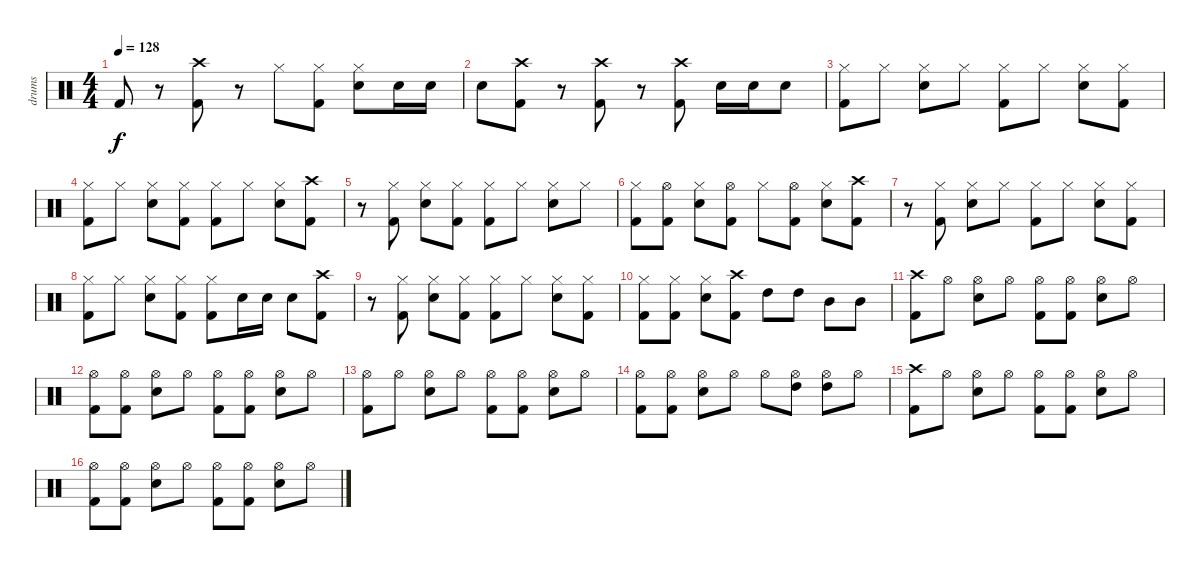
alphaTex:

\track ("drums" "drums") {instrument percussion}
\staff {score}
\articulation defaults
\ts (4 4)
\tempo 128
\clef neutral
\ks c "Kick (hit) 2".8{dy f}
r.8 ("Crash high (hit)" "Kick (hit) 2").8 r.8 "Hi-Hat (closed)".8 ("Kick (hit) 2" "Hi-Hat (closed)").8 ("Snare (hit) 2" "Hi-Hat (closed)").8 "Snare (hit) 2".16 "Snare (hit) 2".16 |
"Snare (hit) 2".8 ("Crash high (hit)" "Kick (hit) 2").8 r.8 ("Crash high (hit)" "Kick (hit) 2").8 r.8 ("Crash high (hit)" "Kick (hit) 2").8 "Snare (hit) 2".16 "Snare (hit) 2".16 "Snare (hit) 2".8 |
("Kick (hit) 2" "Hi-Hat (closed)").8 "Hi-Hat (closed)".8 ("Snare (hit) 2" "Hi-Hat (closed)").8 "Hi-Hat (closed)".8 ("Kick (hit) 2" "Hi-Hat (closed)").8 "Hi-Hat (closed)".8 ("Snare (hit) 2" "Hi-Hat (closed)").8 ("Kick (hit) 2" "Hi-Hat (closed)").8 |
("Kick (hit) 2" "Hi-Hat (closed)").8 "Hi-Hat (closed)".8 ("Snare (hit) 2" "Hi-Hat (closed)").8 ("Kick (hit) 2" "Hi-Hat (closed)").8 ("Kick (hit) 2" "Hi-Hat (closed)").8 "Hi-Hat (closed)".8 ("Snare (hit) 2" "Hi-Hat (closed)").8 ("Kick (hit) 2" "Crash high (hit)").8 |
r.8 ("Kick (hit) 2" "Hi-Hat (closed)").8 ("Snare (hit) 2" "Hi-Hat (closed)").8 ("Kick (hit) 2" "Hi-Hat (closed)").8 ("Kick (hit) 2" "Hi-Hat (closed)").8 "Hi-Hat (closed)".8 ("Snare (hit) 2" "Hi-Hat (closed)").8 "Hi-Hat (closed)".8 |
("Kick (hit) 2" "Hi-Hat (closed)").8 ("Kick (hit) 2" "Hi-Hat (open)").8 ("Snare (hit) 2" "Hi-Hat (closed)").8 ("Kick (hit) 2" "Hi-Hat (open)").8 "Hi-Hat (closed)".8 ("Kick (hit) 2" "Hi-Hat (open)").8 ("Snare (hit) 2" "Hi-Hat (closed)").8 ("Kick (hit) 2" "Crash high (hit)").8 |
r.8 ("Kick (hit) 2" "Hi-Hat (closed)").8 ("Snare (hit) 2" "Hi-Hat (closed)").8 "Hi-Hat (closed)".8 ("Kick (hit) 2" "Hi-Hat (closed)").8 "Hi-Hat (closed)".8 ("Snare (hit) 2" "Hi-Hat (closed)").8 ("Kick (hit) 2" "Hi-Hat (closed)").8 |
("Kick (hit) 2" "Hi-Hat (closed)").8 "Hi-Hat (closed)".8 ("Snare (hit) 2" "Hi-Hat (closed)").8 ("Kick (hit) 2" "Hi-Hat (closed)").8 ("Kick (hit) 2" "Hi-Hat (closed)").8 "Snare (hit) 2".16 "Snare (hit) 2".16 "Snare (hit) 2".8 ("Kick (hit) 2" "Crash high (hit)").8 |
r.8 ("Kick (hit) 2" "Hi-Hat (closed)").8 ("Snare (hit) 2" "Hi-Hat (closed)").8 ("Kick (hit) 2" "Hi-Hat (closed)").8 ("Kick (hit) 2" "Hi-Hat (closed)").8 "Hi-Hat (closed)".8 ("Snare (hit) 2" "Hi-Hat (closed)").8 ("Kick (hit) 2" "Hi-Hat (closed)").8 |
("Kick (hit) 2" "Hi-Hat (closed)").8 ("Kick (hit) 2" "Hi-Hat (closed)").8 ("Snare (hit) 2" "Hi-Hat (closed)").8 ("Kick (hit) 2" "Crash high (hit)").8 "High Tom (hit)".8 "High Tom (hit)".8 "Mid Tom (hit)".8 "Mid Tom (hit)".8 |
("Kick (hit) 2" "Crash high (hit)").8 "Hi-Hat (open)".8 ("Snare (hit) 2" "Hi-Hat (open)").8 "Hi-Hat (open)".8 ("Kick (hit) 2" "Hi-Hat (open)").8 ("Kick (hit) 2" "Hi-Hat (open)").8 ("Snare (hit) 2" "Hi-Hat (open)").8 "Hi-Hat (open)".8 |
("Kick (hit) 2" "Hi-Hat (open)").8 ("Kick (hit) 2" "Hi-Hat (open)").8 ("Snare (hit) 2" "Hi-Hat (open)").8 "Hi-Hat (open)".8 ("Kick (hit) 2" "Hi-Hat (open)").8 ("Kick (hit) 2" "Hi-Hat (open)").8 ("Snare (hit) 2" "Hi-Hat (open)").8 "Hi-Hat (open)".8 |
("Kick (hit) 2" "Hi-Hat (open)").8 "Hi-Hat (open)".8 ("Snare (hit) 2" "Hi-Hat (open)").8 "Hi-Hat (open)".8 ("Kick (hit) 2" "Hi-Hat (open)").8 ("Kick (hit) 2" "Hi-Hat (open)").8 ("Snare (hit) 2" "Hi-Hat (open)").8 "Hi-Hat (open)".8 |
("Kick (hit) 2" "Hi-Hat (open)").8 ("Kick (hit) 2" "Hi-Hat (open)").8 ("Snare (hit) 2" "Hi-Hat (open)").8 "Hi-Hat (open)".8 "Hi-Hat (open)".8 ("High Tom (hit)" "Hi-Hat (open)").8 ("High Tom (hit)" "Hi-Hat (open)").8 "Hi-Hat (open)".8 |
("Kick (hit) 2" "Crash high (hit)").8 "Hi-Hat (open)".8 ("Snare (hit) 2" "Hi-Hat (open)").8 "Hi-Hat (open)".8 ("Kick (hit) 2" "Hi-Hat (open)").8 ("Kick (hit) 2" "Hi-Hat (open)").8 ("Snare (hit) 2" "Hi-Hat (open)").8 "Hi-Hat (open)".8 |
("Kick (hit) 2" "Hi-Hat (open)").8 ("Kick (hit) 2" "Hi-Hat (open)").8 ("Snare (hit) 2" "Hi-Hat (open)").8 "Hi-Hat (open)".8 ("Kick (hit) 2" "Hi-Hat (open)").8 ("Kick (hit) 2" "Hi-Hat (open)").8 ("Snare (hit) 2" "Hi-Hat (open)").8 "Hi-Hat (open)".8
